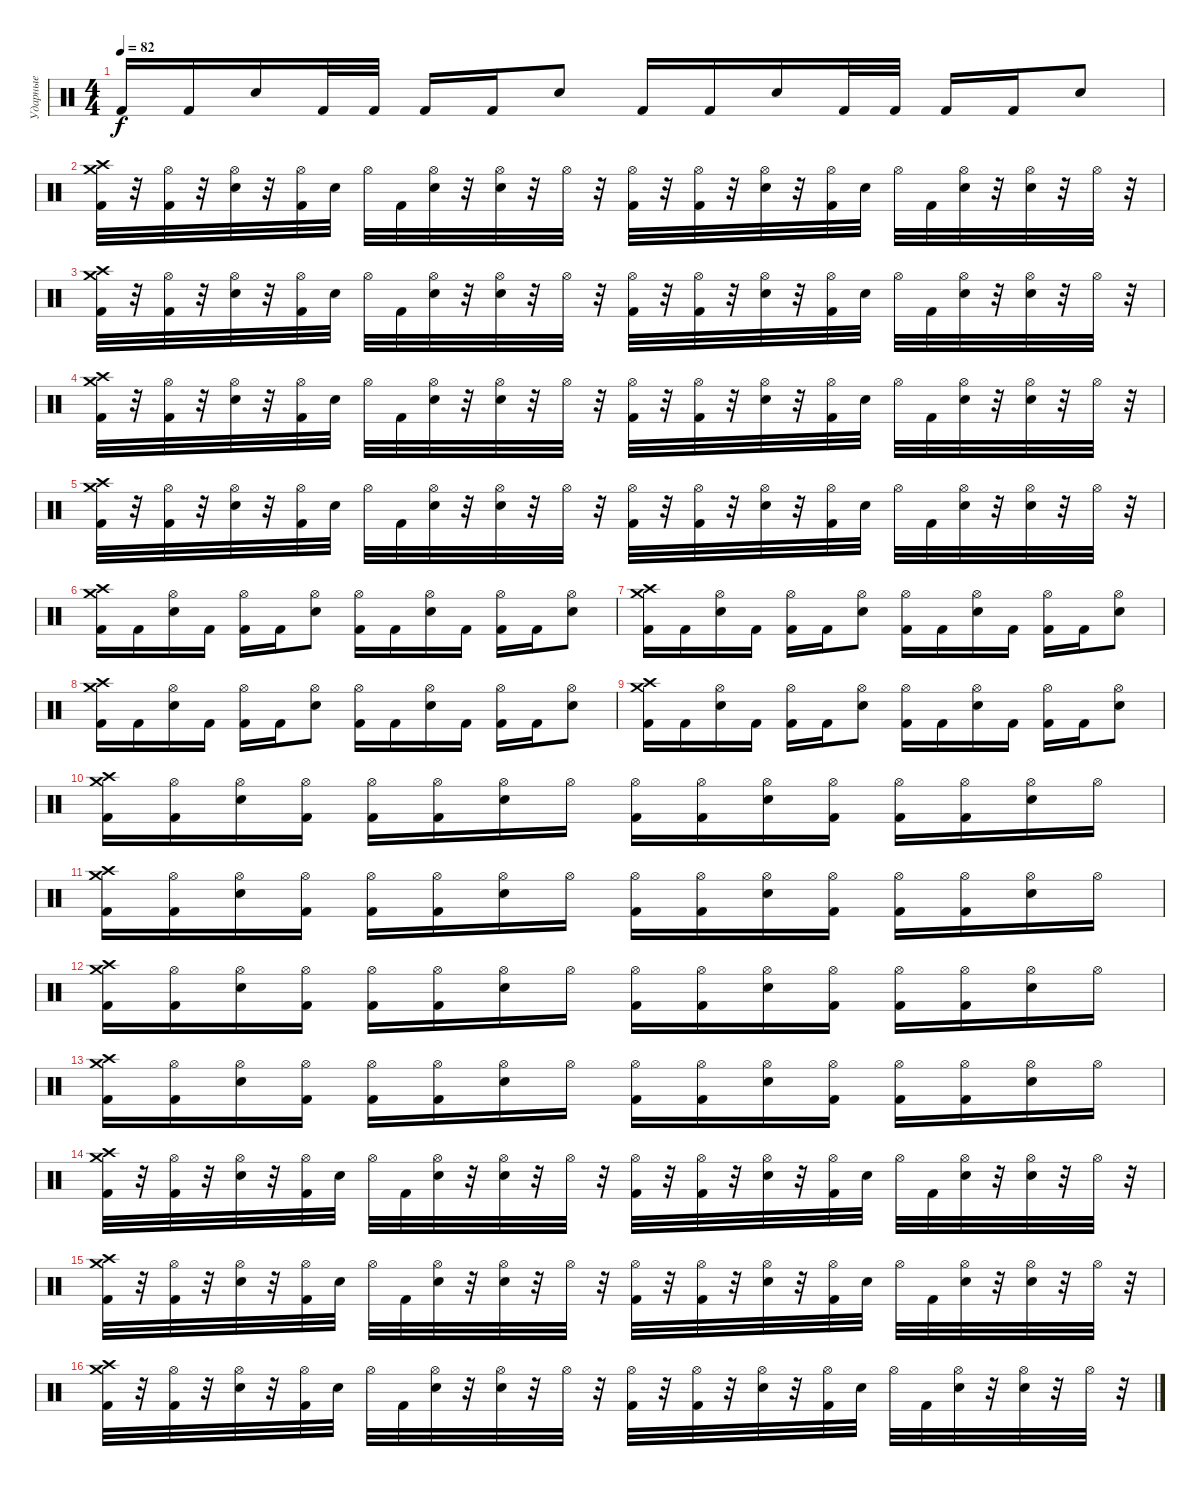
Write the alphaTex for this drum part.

\track ("Ударные" "Ударные") {instrument percussion}
\staff {score}
\articulation defaults
\ts (4 4)
\tempo 82
\clef neutral
\ks c "Kick (hit) 2".16{dy f} "Kick (hit) 2".16 "Electric Snare (hit)".16 "Kick (hit) 2".32 "Kick (hit) 2".32 "Kick (hit) 2".16 "Kick (hit) 2".16 "Electric Snare (hit)".8 "Kick (hit) 2".16 "Kick (hit) 2".16 "Electric Snare (hit)".16 "Kick (hit) 2".32 "Kick (hit) 2".32 "Kick (hit) 2".16 "Kick (hit) 2".16 "Electric Snare (hit)".8
|
("Crash high (hit)" "Crash medium (hit)" "Kick (hit) 2").32 r.32 ("Hi-Hat (open)" "Kick (hit) 2").32 r.32 ("Hi-Hat (open)" "Electric Snare (hit)").32 r.32 ("Hi-Hat (open)" "Kick (hit) 2").32 "Electric Snare (hit)".32 "Hi-Hat (open)".32 "Kick (hit) 2".32 ("Hi-Hat (open)" "Electric Snare (hit)").32 r.32 ("Hi-Hat (open)" "Electric Snare (hit)").32 r.32 "Hi-Hat (open)".32 r.32 ("Hi-Hat (open)" "Kick (hit) 2").32 r.32 ("Hi-Hat (open)" "Kick (hit) 2").32 r.32 ("Hi-Hat (open)" "Electric Snare (hit)").32 r.32 ("Hi-Hat (open)" "Kick (hit) 2").32 "Electric Snare (hit)".32 "Hi-Hat (open)".32 "Kick (hit) 2".32 ("Hi-Hat (open)" "Electric Snare (hit)").32 r.32 ("Hi-Hat (open)" "Electric Snare (hit)").32 r.32 "Hi-Hat (open)".32 r.32 |
("Crash high (hit)" "Crash medium (hit)" "Kick (hit) 2").32 r.32 ("Hi-Hat (open)" "Kick (hit) 2").32 r.32 ("Hi-Hat (open)" "Electric Snare (hit)").32 r.32 ("Hi-Hat (open)" "Kick (hit) 2").32 "Electric Snare (hit)".32 "Hi-Hat (open)".32 "Kick (hit) 2".32 ("Hi-Hat (open)" "Electric Snare (hit)").32 r.32 ("Hi-Hat (open)" "Electric Snare (hit)").32 r.32 "Hi-Hat (open)".32 r.32 ("Hi-Hat (open)" "Kick (hit) 2").32 r.32 ("Hi-Hat (open)" "Kick (hit) 2").32 r.32 ("Hi-Hat (open)" "Electric Snare (hit)").32 r.32 ("Hi-Hat (open)" "Kick (hit) 2").32 "Electric Snare (hit)".32 "Hi-Hat (open)".32 "Kick (hit) 2".32 ("Hi-Hat (open)" "Electric Snare (hit)").32 r.32 ("Hi-Hat (open)" "Electric Snare (hit)").32 r.32 "Hi-Hat (open)".32 r.32 |
("Crash high (hit)" "Crash medium (hit)" "Kick (hit) 2").32 r.32 ("Hi-Hat (open)" "Kick (hit) 2").32 r.32 ("Hi-Hat (open)" "Electric Snare (hit)").32 r.32 ("Hi-Hat (open)" "Kick (hit) 2").32 "Electric Snare (hit)".32 "Hi-Hat (open)".32 "Kick (hit) 2".32 ("Hi-Hat (open)" "Electric Snare (hit)").32 r.32 ("Hi-Hat (open)" "Electric Snare (hit)").32 r.32 "Hi-Hat (open)".32 r.32 ("Hi-Hat (open)" "Kick (hit) 2").32 r.32 ("Hi-Hat (open)" "Kick (hit) 2").32 r.32 ("Hi-Hat (open)" "Electric Snare (hit)").32 r.32 ("Hi-Hat (open)" "Kick (hit) 2").32 "Electric Snare (hit)".32 "Hi-Hat (open)".32 "Kick (hit) 2".32 ("Hi-Hat (open)" "Electric Snare (hit)").32 r.32 ("Hi-Hat (open)" "Electric Snare (hit)").32 r.32 "Hi-Hat (open)".32 r.32 |
("Crash high (hit)" "Crash medium (hit)" "Kick (hit) 2").32 r.32 ("Hi-Hat (open)" "Kick (hit) 2").32 r.32 ("Hi-Hat (open)" "Electric Snare (hit)").32 r.32 ("Hi-Hat (open)" "Kick (hit) 2").32 "Electric Snare (hit)".32 "Hi-Hat (open)".32 "Kick (hit) 2".32 ("Hi-Hat (open)" "Electric Snare (hit)").32 r.32 ("Hi-Hat (open)" "Electric Snare (hit)").32 r.32 "Hi-Hat (open)".32 r.32 ("Hi-Hat (open)" "Kick (hit) 2").32 r.32 ("Hi-Hat (open)" "Kick (hit) 2").32 r.32 ("Hi-Hat (open)" "Electric Snare (hit)").32 r.32 ("Hi-Hat (open)" "Kick (hit) 2").32 "Electric Snare (hit)".32 "Hi-Hat (open)".32 "Kick (hit) 2".32 ("Hi-Hat (open)" "Electric Snare (hit)").32 r.32 ("Hi-Hat (open)" "Electric Snare (hit)").32 r.32 "Hi-Hat (open)".32 r.32 |
("Crash high (hit)" "Crash medium (hit)" "Kick (hit) 2").16 "Kick (hit) 2".16 ("Hi-Hat (open)" "Electric Snare (hit)").16 "Kick (hit) 2".16 ("Hi-Hat (open)" "Kick (hit) 2").16 "Kick (hit) 2".16 ("Hi-Hat (open)" "Electric Snare (hit)").8 ("Hi-Hat (open)" "Kick (hit) 2").16 "Kick (hit) 2".16 ("Hi-Hat (open)" "Electric Snare (hit)").16 "Kick (hit) 2".16 ("Hi-Hat (open)" "Kick (hit) 2").16 "Kick (hit) 2".16 ("Hi-Hat (open)" "Electric Snare (hit)").8 |
("Crash high (hit)" "Crash medium (hit)" "Kick (hit) 2").16 "Kick (hit) 2".16 ("Hi-Hat (open)" "Electric Snare (hit)").16 "Kick (hit) 2".16 ("Hi-Hat (open)" "Kick (hit) 2").16 "Kick (hit) 2".16 ("Hi-Hat (open)" "Electric Snare (hit)").8 ("Hi-Hat (open)" "Kick (hit) 2").16 "Kick (hit) 2".16 ("Hi-Hat (open)" "Electric Snare (hit)").16 "Kick (hit) 2".16 ("Hi-Hat (open)" "Kick (hit) 2").16 "Kick (hit) 2".16 ("Hi-Hat (open)" "Electric Snare (hit)").8 |
("Crash high (hit)" "Crash medium (hit)" "Kick (hit) 2").16 "Kick (hit) 2".16 ("Hi-Hat (open)" "Electric Snare (hit)").16 "Kick (hit) 2".16 ("Hi-Hat (open)" "Kick (hit) 2").16 "Kick (hit) 2".16 ("Hi-Hat (open)" "Electric Snare (hit)").8 ("Hi-Hat (open)" "Kick (hit) 2").16 "Kick (hit) 2".16 ("Hi-Hat (open)" "Electric Snare (hit)").16 "Kick (hit) 2".16 ("Hi-Hat (open)" "Kick (hit) 2").16 "Kick (hit) 2".16 ("Hi-Hat (open)" "Electric Snare (hit)").8 |
("Crash high (hit)" "Crash medium (hit)" "Kick (hit) 2").16 "Kick (hit) 2".16 ("Hi-Hat (open)" "Electric Snare (hit)").16 "Kick (hit) 2".16 ("Hi-Hat (open)" "Kick (hit) 2").16 "Kick (hit) 2".16 ("Hi-Hat (open)" "Electric Snare (hit)").8 ("Hi-Hat (open)" "Kick (hit) 2").16 "Kick (hit) 2".16 ("Hi-Hat (open)" "Electric Snare (hit)").16 "Kick (hit) 2".16 ("Hi-Hat (open)" "Kick (hit) 2").16 "Kick (hit) 2".16 ("Hi-Hat (open)" "Electric Snare (hit)").8 |
("Crash high (hit)" "Crash medium (hit)" "Kick (hit) 2").16 ("Hi-Hat (open)" "Kick (hit) 2").16 ("Hi-Hat (open)" "Electric Snare (hit)").16 ("Hi-Hat (open)" "Kick (hit) 2").16 ("Hi-Hat (open)" "Kick (hit) 2").16 ("Hi-Hat (open)" "Kick (hit) 2").16 ("Hi-Hat (open)" "Electric Snare (hit)").16 "Hi-Hat (open)".16 ("Hi-Hat (open)" "Kick (hit) 2").16 ("Hi-Hat (open)" "Kick (hit) 2").16 ("Hi-Hat (open)" "Electric Snare (hit)").16 ("Hi-Hat (open)" "Kick (hit) 2").16 ("Hi-Hat (open)" "Kick (hit) 2").16 ("Hi-Hat (open)" "Kick (hit) 2").16 ("Hi-Hat (open)" "Electric Snare (hit)").16 "Hi-Hat (open)".16 |
("Crash high (hit)" "Crash medium (hit)" "Kick (hit) 2").16 ("Hi-Hat (open)" "Kick (hit) 2").16 ("Hi-Hat (open)" "Electric Snare (hit)").16 ("Hi-Hat (open)" "Kick (hit) 2").16 ("Hi-Hat (open)" "Kick (hit) 2").16 ("Hi-Hat (open)" "Kick (hit) 2").16 ("Hi-Hat (open)" "Electric Snare (hit)").16 "Hi-Hat (open)".16 ("Hi-Hat (open)" "Kick (hit) 2").16 ("Hi-Hat (open)" "Kick (hit) 2").16 ("Hi-Hat (open)" "Electric Snare (hit)").16 ("Hi-Hat (open)" "Kick (hit) 2").16 ("Hi-Hat (open)" "Kick (hit) 2").16 ("Hi-Hat (open)" "Kick (hit) 2").16 ("Hi-Hat (open)" "Electric Snare (hit)").16 "Hi-Hat (open)".16 |
("Crash high (hit)" "Crash medium (hit)" "Kick (hit) 2").16 ("Hi-Hat (open)" "Kick (hit) 2").16 ("Hi-Hat (open)" "Electric Snare (hit)").16 ("Hi-Hat (open)" "Kick (hit) 2").16 ("Hi-Hat (open)" "Kick (hit) 2").16 ("Hi-Hat (open)" "Kick (hit) 2").16 ("Hi-Hat (open)" "Electric Snare (hit)").16 "Hi-Hat (open)".16 ("Hi-Hat (open)" "Kick (hit) 2").16 ("Hi-Hat (open)" "Kick (hit) 2").16 ("Hi-Hat (open)" "Electric Snare (hit)").16 ("Hi-Hat (open)" "Kick (hit) 2").16 ("Hi-Hat (open)" "Kick (hit) 2").16 ("Hi-Hat (open)" "Kick (hit) 2").16 ("Hi-Hat (open)" "Electric Snare (hit)").16 "Hi-Hat (open)".16 |
("Crash high (hit)" "Crash medium (hit)" "Kick (hit) 2").16 ("Hi-Hat (open)" "Kick (hit) 2").16 ("Hi-Hat (open)" "Electric Snare (hit)").16 ("Hi-Hat (open)" "Kick (hit) 2").16 ("Hi-Hat (open)" "Kick (hit) 2").16 ("Hi-Hat (open)" "Kick (hit) 2").16 ("Hi-Hat (open)" "Electric Snare (hit)").16 "Hi-Hat (open)".16 ("Hi-Hat (open)" "Kick (hit) 2").16 ("Hi-Hat (open)" "Kick (hit) 2").16 ("Hi-Hat (open)" "Electric Snare (hit)").16 ("Hi-Hat (open)" "Kick (hit) 2").16 ("Hi-Hat (open)" "Kick (hit) 2").16 ("Hi-Hat (open)" "Kick (hit) 2").16 ("Hi-Hat (open)" "Electric Snare (hit)").16 "Hi-Hat (open)".16 |
("Crash high (hit)" "Crash medium (hit)" "Kick (hit) 2").32 r.32 ("Hi-Hat (open)" "Kick (hit) 2").32 r.32 ("Hi-Hat (open)" "Electric Snare (hit)").32 r.32 ("Hi-Hat (open)" "Kick (hit) 2").32 "Electric Snare (hit)".32 "Hi-Hat (open)".32 "Kick (hit) 2".32 ("Hi-Hat (open)" "Electric Snare (hit)").32 r.32 ("Hi-Hat (open)" "Electric Snare (hit)").32 r.32 "Hi-Hat (open)".32 r.32 ("Hi-Hat (open)" "Kick (hit) 2").32 r.32 ("Hi-Hat (open)" "Kick (hit) 2").32 r.32 ("Hi-Hat (open)" "Electric Snare (hit)").32 r.32 ("Hi-Hat (open)" "Kick (hit) 2").32 "Electric Snare (hit)".32 "Hi-Hat (open)".32 "Kick (hit) 2".32 ("Hi-Hat (open)" "Electric Snare (hit)").32 r.32 ("Hi-Hat (open)" "Electric Snare (hit)").32 r.32 "Hi-Hat (open)".32 r.32 |
("Crash high (hit)" "Crash medium (hit)" "Kick (hit) 2").32 r.32 ("Hi-Hat (open)" "Kick (hit) 2").32 r.32 ("Hi-Hat (open)" "Electric Snare (hit)").32 r.32 ("Hi-Hat (open)" "Kick (hit) 2").32 "Electric Snare (hit)".32 "Hi-Hat (open)".32 "Kick (hit) 2".32 ("Hi-Hat (open)" "Electric Snare (hit)").32 r.32 ("Hi-Hat (open)" "Electric Snare (hit)").32 r.32 "Hi-Hat (open)".32 r.32 ("Hi-Hat (open)" "Kick (hit) 2").32 r.32 ("Hi-Hat (open)" "Kick (hit) 2").32 r.32 ("Hi-Hat (open)" "Electric Snare (hit)").32 r.32 ("Hi-Hat (open)" "Kick (hit) 2").32 "Electric Snare (hit)".32 "Hi-Hat (open)".32 "Kick (hit) 2".32 ("Hi-Hat (open)" "Electric Snare (hit)").32 r.32 ("Hi-Hat (open)" "Electric Snare (hit)").32 r.32 "Hi-Hat (open)".32 r.32 |
("Crash high (hit)" "Crash medium (hit)" "Kick (hit) 2").32 r.32 ("Hi-Hat (open)" "Kick (hit) 2").32 r.32 ("Hi-Hat (open)" "Electric Snare (hit)").32 r.32 ("Hi-Hat (open)" "Kick (hit) 2").32 "Electric Snare (hit)".32 "Hi-Hat (open)".32 "Kick (hit) 2".32 ("Hi-Hat (open)" "Electric Snare (hit)").32 r.32 ("Hi-Hat (open)" "Electric Snare (hit)").32 r.32 "Hi-Hat (open)".32 r.32 ("Hi-Hat (open)" "Kick (hit) 2").32 r.32 ("Hi-Hat (open)" "Kick (hit) 2").32 r.32 ("Hi-Hat (open)" "Electric Snare (hit)").32 r.32 ("Hi-Hat (open)" "Kick (hit) 2").32 "Electric Snare (hit)".32 "Hi-Hat (open)".32 "Kick (hit) 2".32 ("Hi-Hat (open)" "Electric Snare (hit)").32 r.32 ("Hi-Hat (open)" "Electric Snare (hit)").32 r.32 "Hi-Hat (open)".32 r.32
